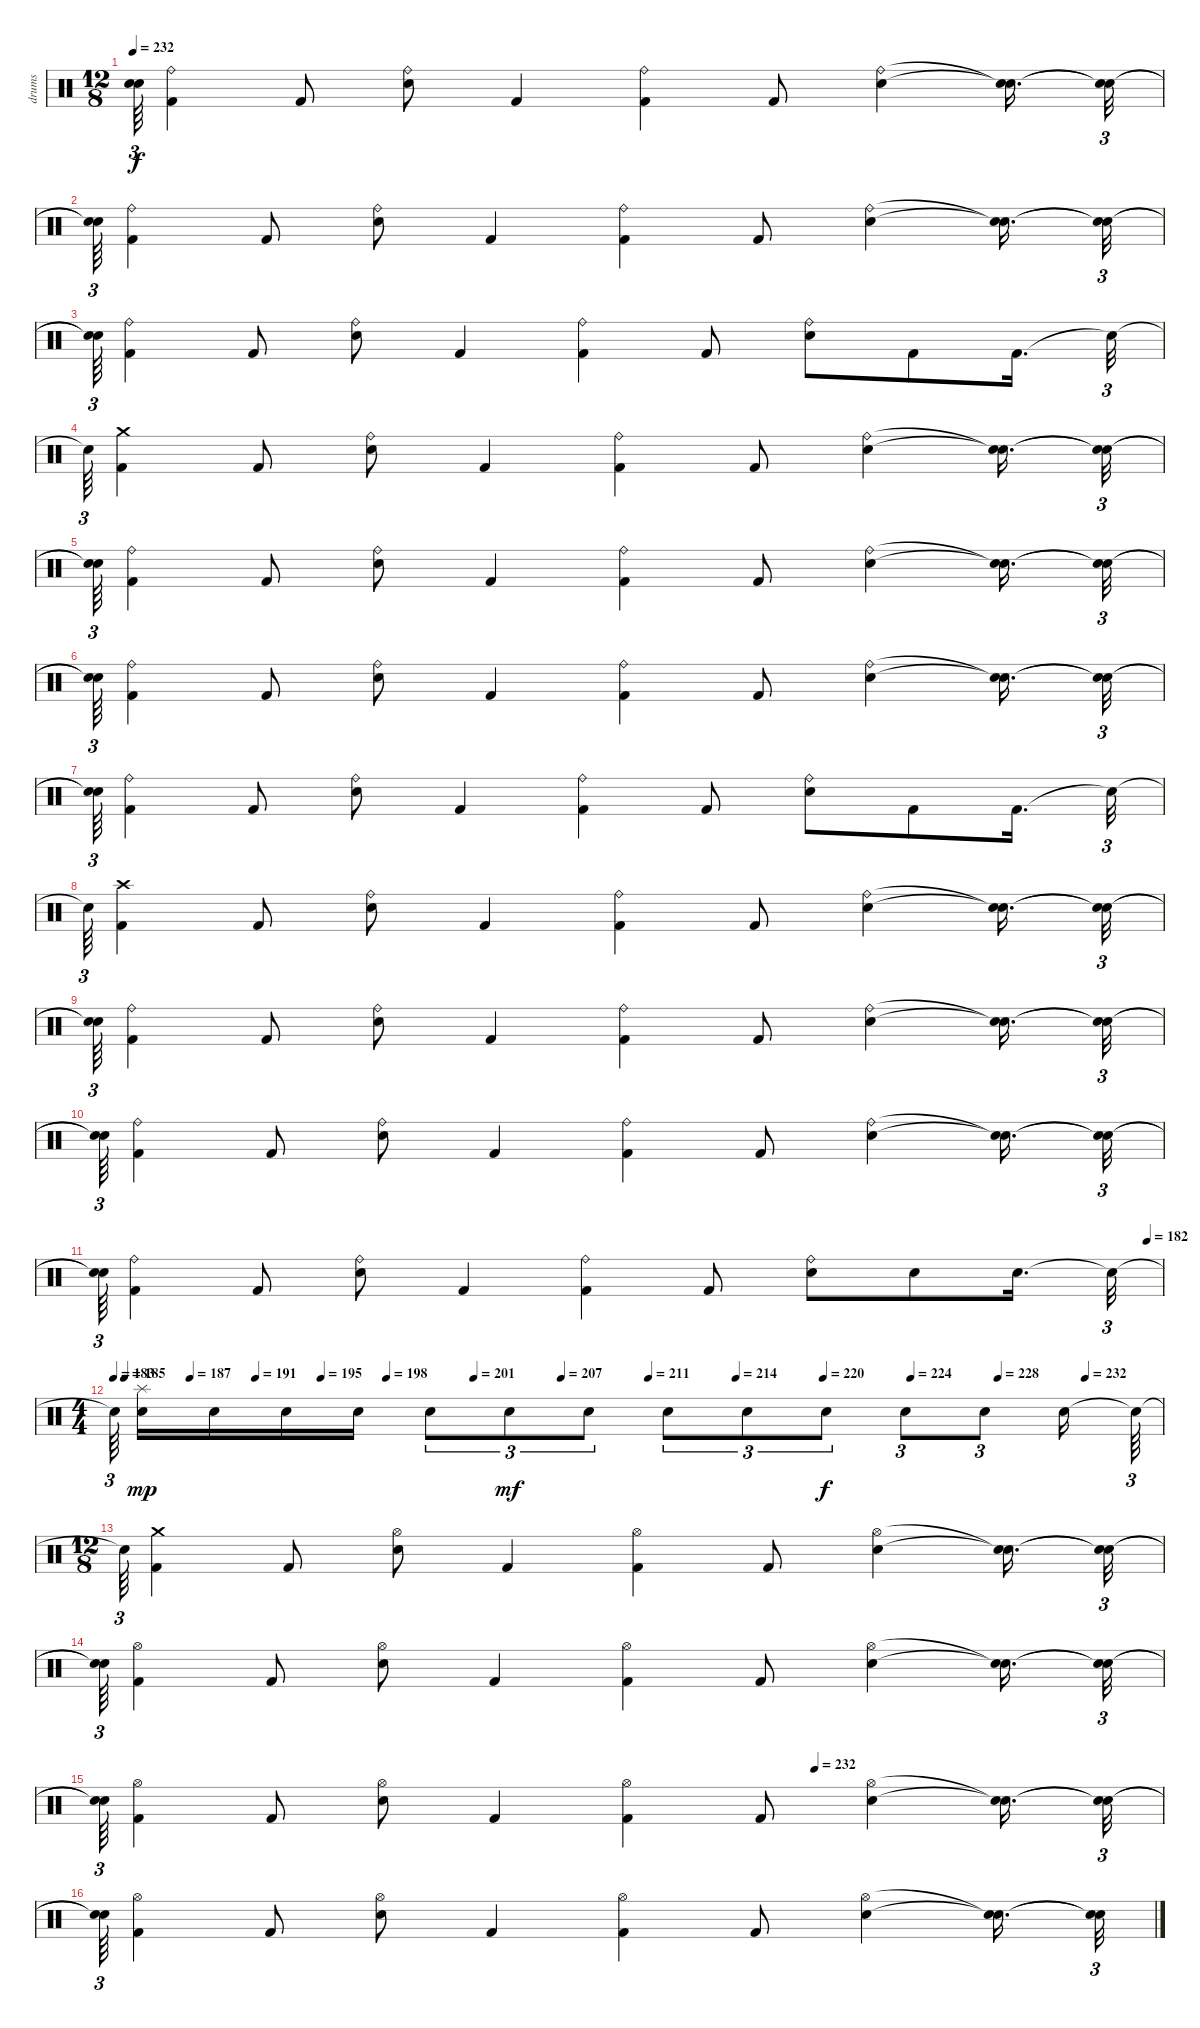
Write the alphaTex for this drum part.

\track ("drums" "drums") {instrument percussion}
\staff {score}
\articulation defaults
\ts (12 8)
\tempo 232
\clef neutral
\ks c
("Snare (hit)"{t} "Snare (hit)"{t}).64{tu (3 2) dy f} ("Ride (bell)" "Kick (hit) 2").4 "Kick (hit) 2".8 ("Ride (bell)" "Electric Snare (hit)").8 "Kick (hit) 2".4 ("Ride (bell)" "Kick (hit) 2").4 "Kick (hit) 2".8 ("Ride (bell)" "Electric Snare (hit)").4 ("Snare (hit)"{t} "Snare (hit)"{t}).16{d} ("Snare (hit)"{t} "Snare (hit)"{t}).32{tu (3 2)} |
("Snare (hit)"{t} "Snare (hit)"{t}).64{tu (3 2)} ("Kick (hit) 2" "Ride (bell)").4 "Kick (hit) 2".8 ("Ride (bell)" "Electric Snare (hit)").8 "Kick (hit) 2".4 ("Kick (hit) 2" "Ride (bell)").4 "Kick (hit) 2".8 ("Ride (bell)" "Electric Snare (hit)").4 ("Snare (hit)"{t} "Snare (hit)"{t}).16{d} ("Snare (hit)"{t} "Snare (hit)"{t}).32{tu (3 2)} |
("Snare (hit)"{t} "Snare (hit)"{t}).64{tu (3 2)} ("Kick (hit) 2" "Ride (bell)").4 "Kick (hit) 2".8 ("Ride (bell)" "Electric Snare (hit)").8 "Kick (hit) 2".4 ("Ride (bell)" "Kick (hit) 2").4 "Kick (hit) 2".8 ("Ride (bell)" "Electric Snare (hit)").8 "Kick (hit) 2".8 "Kick (hit) 2".16{d} "Snare (hit)"{t}.32{tu (3 2)} |
"Snare (hit)"{t}.64{tu (3 2)} ("Crash medium (hit)" "Kick (hit) 2").4 "Kick (hit) 2".8 ("Ride (bell)" "Electric Snare (hit)").8 "Kick (hit) 2".4 ("Ride (bell)" "Kick (hit) 2").4 "Kick (hit) 2".8 ("Ride (bell)" "Electric Snare (hit)").4 ("Snare (hit)"{t} "Snare (hit)"{t}).16{d} ("Snare (hit)"{t} "Snare (hit)"{t}).32{tu (3 2)} |
("Snare (hit)"{t} "Snare (hit)"{t}).64{tu (3 2)} ("Ride (bell)" "Kick (hit) 2").4 "Kick (hit) 2".8 ("Ride (bell)" "Electric Snare (hit)").8 "Kick (hit) 2".4 ("Ride (bell)" "Kick (hit) 2").4 "Kick (hit) 2".8 ("Ride (bell)" "Electric Snare (hit)").4 ("Snare (hit)"{t} "Snare (hit)"{t}).16{d} ("Snare (hit)"{t} "Snare (hit)"{t}).32{tu (3 2)} |
("Snare (hit)"{t} "Snare (hit)"{t}).64{tu (3 2)} ("Kick (hit) 2" "Ride (bell)").4 "Kick (hit) 2".8 ("Ride (bell)" "Electric Snare (hit)").8 "Kick (hit) 2".4 ("Kick (hit) 2" "Ride (bell)").4 "Kick (hit) 2".8 ("Ride (bell)" "Electric Snare (hit)").4 ("Snare (hit)"{t} "Snare (hit)"{t}).16{d} ("Snare (hit)"{t} "Snare (hit)"{t}).32{tu (3 2)} |
("Snare (hit)"{t} "Snare (hit)"{t}).64{tu (3 2)} ("Kick (hit) 2" "Ride (bell)").4 "Kick (hit) 2".8 ("Ride (bell)" "Electric Snare (hit)").8 "Kick (hit) 2".4 ("Ride (bell)" "Kick (hit) 2").4 "Kick (hit) 2".8 ("Ride (bell)" "Electric Snare (hit)").8 "Kick (hit) 2".8 "Kick (hit) 2".16{d} "Snare (hit)"{t}.32{tu (3 2)} |
"Snare (hit)"{t}.64{tu (3 2)} ("Crash high (hit)" "Kick (hit) 2").4 "Kick (hit) 2".8 ("Ride (bell)" "Electric Snare (hit)").8 "Kick (hit) 2".4 ("Ride (bell)" "Kick (hit) 2").4 "Kick (hit) 2".8 ("Ride (bell)" "Electric Snare (hit)").4 ("Snare (hit)"{t} "Snare (hit)"{t}).16{d} ("Snare (hit)"{t} "Snare (hit)"{t}).32{tu (3 2)} |
("Snare (hit)"{t} "Snare (hit)"{t}).64{tu (3 2)} ("Ride (bell)" "Kick (hit) 2").4 "Kick (hit) 2".8 ("Ride (bell)" "Electric Snare (hit)").8 "Kick (hit) 2".4 ("Ride (bell)" "Kick (hit) 2").4 "Kick (hit) 2".8 ("Ride (bell)" "Electric Snare (hit)").4 ("Snare (hit)"{t} "Snare (hit)"{t}).16{d} ("Snare (hit)"{t} "Snare (hit)"{t}).32{tu (3 2)} |
("Snare (hit)"{t} "Snare (hit)"{t}).64{tu (3 2)} ("Kick (hit) 2" "Ride (bell)").4 "Kick (hit) 2".8 ("Ride (bell)" "Electric Snare (hit)").8 "Kick (hit) 2".4 ("Kick (hit) 2" "Ride (bell)").4 "Kick (hit) 2".8 ("Ride (bell)" "Electric Snare (hit)").4 ("Snare (hit)"{t} "Snare (hit)"{t}).16{d} ("Snare (hit)"{t} "Snare (hit)"{t}).32{tu (3 2)} |
\tempo (182 0.9861111111111112)
("Snare (hit)"{t} "Snare (hit)"{t}).64{tu (3 2)} ("Kick (hit) 2" "Ride (bell)").4 "Kick (hit) 2".8 ("Ride (bell)" "Electric Snare (hit)").8 "Kick (hit) 2".4 ("Ride (bell)" "Kick (hit) 2").4 "Kick (hit) 2".8 ("Ride (bell)" "Electric Snare (hit)").8 "Electric Snare (hit)".8 "Electric Snare (hit)".16{d} "Snare (hit)"{t}.32{tu (3 2)} |
\ts (4 4)
\tempo 183
\tempo (185 0.010416666666666666)
\tempo (187 0.07291666666666667)
\tempo (191 0.13541666666666666)
\tempo (195 0.19791666666666666)
\tempo (198 0.2604166666666667)
\tempo (201 0.34375)
\tempo (207 0.4270833333333333)
\tempo (211 0.5104166666666666)
\tempo (214 0.59375)
\tempo (220 0.6770833333333334)
\tempo (224 0.7604166666666666)
\tempo (228 0.84375)
\tempo (232 0.9270833333333334)
"Snare (hit)"{t}.64{tu (3 2) beam splitsecondary} ("Splash (hit)" "Electric Snare (hit)").16{dy mp} "Electric Snare (hit)".16 "Electric Snare (hit)".16 "Electric Snare (hit)".16 "Electric Snare (hit)".8{tu (3 2)} "Electric Snare (hit)".8{tu (3 2) dy mf} "Electric Snare (hit)".8{tu (3 2)} "Electric Snare (hit)".8{tu (3 2)} "Electric Snare (hit)".8{tu (3 2)} "Electric Snare (hit)".8{tu (3 2) dy f} "Electric Snare (hit)".8{tu (3 2)} "Electric Snare (hit)".8{tu (3 2)} "Electric Snare (hit)".16 "Snare (hit)"{t}.64{tu (3 2)} |
\ts (12 8)
"Snare (hit)"{t}.64{tu (3 2)} ("Kick (hit) 2" "Crash medium (hit)").4 "Kick (hit) 2".8 ("Electric Snare (hit)" "Hi-Hat (open)").8 "Kick (hit) 2".4 ("Kick (hit) 2" "Hi-Hat (open)").4 "Kick (hit) 2".8 ("Electric Snare (hit)" "Hi-Hat (open)").4 ("Snare (hit)"{t} "Snare (hit)"{t}).16{d} ("Snare (hit)"{t} "Snare (hit)"{t}).32{tu (3 2)} |
("Snare (hit)"{t} "Snare (hit)"{t}).64{tu (3 2)} ("Hi-Hat (open)" "Kick (hit) 2").4 "Kick (hit) 2".8 ("Hi-Hat (open)" "Electric Snare (hit)").8 "Kick (hit) 2".4 ("Hi-Hat (open)" "Kick (hit) 2").4 "Kick (hit) 2".8 ("Hi-Hat (open)" "Electric Snare (hit)").4 ("Snare (hit)"{t} "Snare (hit)"{t}).16{d} ("Snare (hit)"{t} "Snare (hit)"{t}).32{tu (3 2)} |
\tempo (232 0.6736111111111112)
("Snare (hit)"{t} "Snare (hit)"{t}).64{tu (3 2)} ("Hi-Hat (open)" "Kick (hit) 2").4 "Kick (hit) 2".8 ("Hi-Hat (open)" "Electric Snare (hit)").8 "Kick (hit) 2".4 ("Hi-Hat (open)" "Kick (hit) 2").4 "Kick (hit) 2".8 ("Hi-Hat (open)" "Electric Snare (hit)").4 ("Snare (hit)"{t} "Snare (hit)"{t}).16{d} ("Snare (hit)"{t} "Snare (hit)"{t}).32{tu (3 2)} |
("Snare (hit)"{t} "Snare (hit)"{t}).64{tu (3 2)} ("Hi-Hat (open)" "Kick (hit) 2").4 "Kick (hit) 2".8 ("Hi-Hat (open)" "Electric Snare (hit)").8 "Kick (hit) 2".4 ("Hi-Hat (open)" "Kick (hit) 2").4 "Kick (hit) 2".8 ("Hi-Hat (open)" "Electric Snare (hit)").4 ("Snare (hit)"{t} "Snare (hit)"{t}).16{d} ("Snare (hit)"{t} "Snare (hit)"{t}).32{tu (3 2)}
